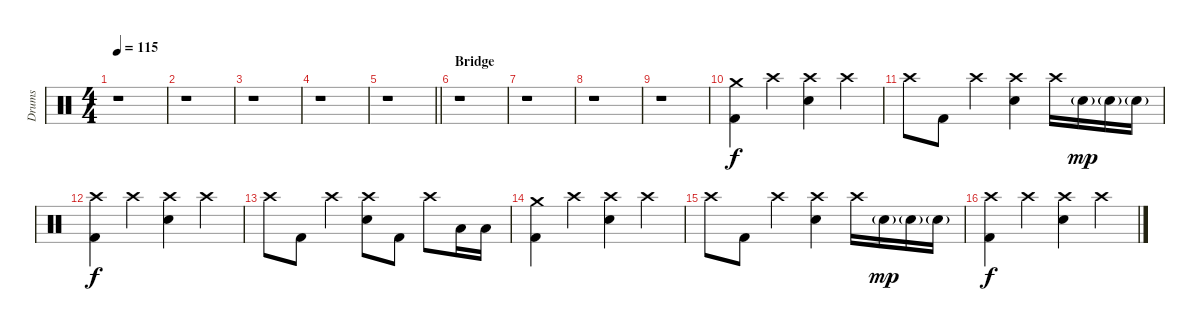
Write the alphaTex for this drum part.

\track ("Drums " "Drums ") {instrument percussion}
\staff {score}
\articulation defaults
\ts (4 4)
\tempo 115
\clef neutral
\ks c
r.1{dy f} |
r.1 |
r.1 |
r.1 |
\barLineRight lightlight
r.1 |
\section ("" "Bridge")
r.1 |
r.1 |
r.1 |
r.1 |
("Crash medium (hit)" "Kick (hit) 2").4 "Crash high (hit)".4 ("Crash high (hit)" "Electric Snare (hit)").4 "Crash high (hit)".4 |
"Crash high (hit)".8 "Kick (hit) 2".8 "Crash high (hit)".4 ("Crash high (hit)" "Electric Snare (hit)").4 "Crash high (hit)".16 "Electric Snare (hit)"{g}.16{dy mp} "Electric Snare (hit)"{g}.16 "Electric Snare (hit)"{g}.16 |
("Crash high (hit)" "Kick (hit) 2").4{dy f} "Crash high (hit)".4 ("Crash high (hit)" "Electric Snare (hit)").4 "Crash high (hit)".4 |
"Crash high (hit)".8 "Kick (hit) 2".8 "Crash high (hit)".4 ("Crash high (hit)" "Electric Snare (hit)").8 "Kick (hit) 2".8 "Crash high (hit)".8 "Low Tom (hit)".16 "Low Tom (hit)".16 |
("Crash medium (hit)" "Kick (hit) 2").4 "Crash high (hit)".4 ("Crash high (hit)" "Electric Snare (hit)").4 "Crash high (hit)".4 |
"Crash high (hit)".8 "Kick (hit) 2".8 "Crash high (hit)".4 ("Crash high (hit)" "Electric Snare (hit)").4 "Crash high (hit)".16 "Electric Snare (hit)"{g}.16{dy mp} "Electric Snare (hit)"{g}.16 "Electric Snare (hit)"{g}.16 |
("Crash high (hit)" "Kick (hit) 2").4{dy f} "Crash high (hit)".4 ("Crash high (hit)" "Electric Snare (hit)").4 "Crash high (hit)".4
